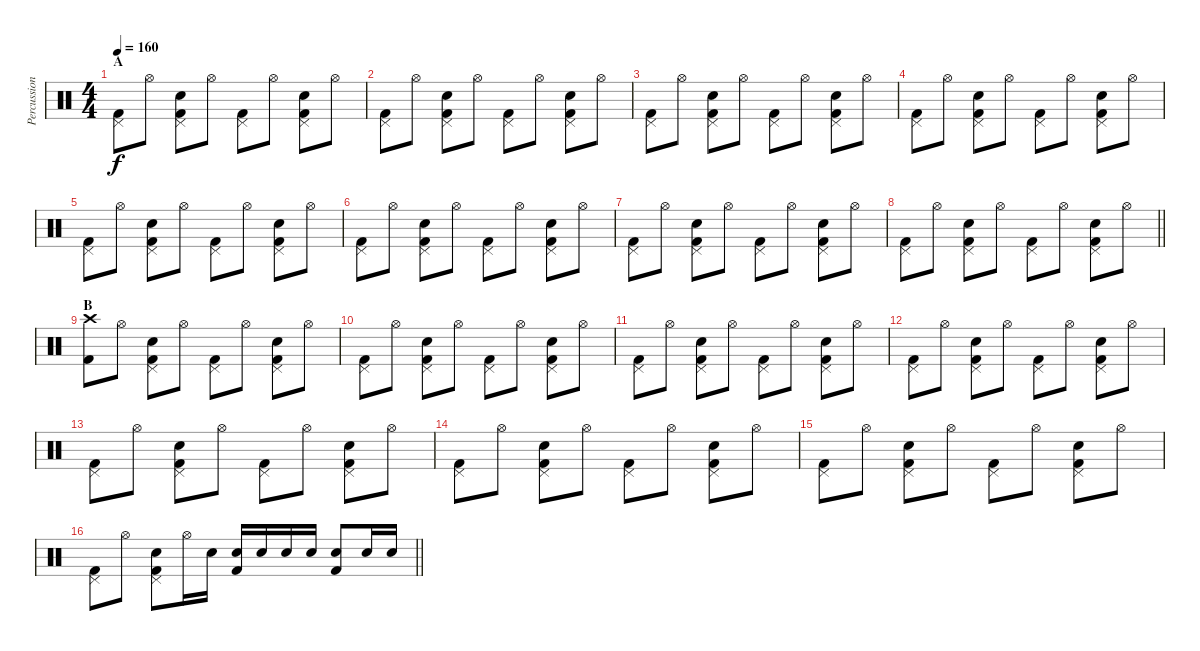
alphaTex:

\track ("Percussion" "Percussion") {instrument percussion}
\staff {score}
\articulation defaults
\ts (4 4)
\section ("" "A")
\tempo 160
\clef neutral
\ks c
("Pedal Hi-Hat (hit)" "Kick (hit) 2").8{dy f} "Hi-Hat (open)".8 ("Pedal Hi-Hat (hit)" "Electric Snare (hit)" "Kick (hit) 2").8 "Hi-Hat (open)".8 ("Pedal Hi-Hat (hit)" "Kick (hit) 2").8 "Hi-Hat (open)".8 ("Pedal Hi-Hat (hit)" "Electric Snare (hit)" "Kick (hit) 2").8 "Hi-Hat (open)".8 |
("Pedal Hi-Hat (hit)" "Kick (hit) 2").8 "Hi-Hat (open)".8 ("Pedal Hi-Hat (hit)" "Electric Snare (hit)" "Kick (hit) 2").8 "Hi-Hat (open)".8 ("Pedal Hi-Hat (hit)" "Kick (hit) 2").8 "Hi-Hat (open)".8 ("Pedal Hi-Hat (hit)" "Electric Snare (hit)" "Kick (hit) 2").8 "Hi-Hat (open)".8 |
("Pedal Hi-Hat (hit)" "Kick (hit) 2").8 "Hi-Hat (open)".8 ("Pedal Hi-Hat (hit)" "Electric Snare (hit)" "Kick (hit) 2").8 "Hi-Hat (open)".8 ("Pedal Hi-Hat (hit)" "Kick (hit) 2").8 "Hi-Hat (open)".8 ("Pedal Hi-Hat (hit)" "Electric Snare (hit)" "Kick (hit) 2").8 "Hi-Hat (open)".8 |
("Pedal Hi-Hat (hit)" "Kick (hit) 2").8 "Hi-Hat (open)".8 ("Pedal Hi-Hat (hit)" "Electric Snare (hit)" "Kick (hit) 2").8 "Hi-Hat (open)".8 ("Pedal Hi-Hat (hit)" "Kick (hit) 2").8 "Hi-Hat (open)".8 ("Pedal Hi-Hat (hit)" "Electric Snare (hit)" "Kick (hit) 2").8 "Hi-Hat (open)".8 |
("Pedal Hi-Hat (hit)" "Kick (hit) 2").8 "Hi-Hat (open)".8 ("Pedal Hi-Hat (hit)" "Electric Snare (hit)" "Kick (hit) 2").8 "Hi-Hat (open)".8 ("Pedal Hi-Hat (hit)" "Kick (hit) 2").8 "Hi-Hat (open)".8 ("Pedal Hi-Hat (hit)" "Electric Snare (hit)" "Kick (hit) 2").8 "Hi-Hat (open)".8 |
("Pedal Hi-Hat (hit)" "Kick (hit) 2").8 "Hi-Hat (open)".8 ("Pedal Hi-Hat (hit)" "Electric Snare (hit)" "Kick (hit) 2").8 "Hi-Hat (open)".8 ("Pedal Hi-Hat (hit)" "Kick (hit) 2").8 "Hi-Hat (open)".8 ("Pedal Hi-Hat (hit)" "Electric Snare (hit)" "Kick (hit) 2").8 "Hi-Hat (open)".8 |
("Pedal Hi-Hat (hit)" "Kick (hit) 2").8 "Hi-Hat (open)".8 ("Pedal Hi-Hat (hit)" "Electric Snare (hit)" "Kick (hit) 2").8 "Hi-Hat (open)".8 ("Pedal Hi-Hat (hit)" "Kick (hit) 2").8 "Hi-Hat (open)".8 ("Pedal Hi-Hat (hit)" "Electric Snare (hit)" "Kick (hit) 2").8 "Hi-Hat (open)".8 |
\barLineRight lightlight
("Pedal Hi-Hat (hit)" "Kick (hit) 2").8 "Hi-Hat (open)".8 ("Pedal Hi-Hat (hit)" "Electric Snare (hit)" "Kick (hit) 2").8 "Hi-Hat (open)".8 ("Pedal Hi-Hat (hit)" "Kick (hit) 2").8 "Hi-Hat (open)".8 ("Pedal Hi-Hat (hit)" "Electric Snare (hit)" "Kick (hit) 2").8 "Hi-Hat (open)".8 |
\section ("" "B")
("Crash high (hit)" "Kick (hit) 2").8 "Hi-Hat (open)".8 ("Pedal Hi-Hat (hit)" "Electric Snare (hit)" "Kick (hit) 2").8 "Hi-Hat (open)".8 ("Pedal Hi-Hat (hit)" "Kick (hit) 2").8 "Hi-Hat (open)".8 ("Pedal Hi-Hat (hit)" "Electric Snare (hit)" "Kick (hit) 2").8 "Hi-Hat (open)".8 |
("Pedal Hi-Hat (hit)" "Kick (hit) 2").8 "Hi-Hat (open)".8 ("Pedal Hi-Hat (hit)" "Electric Snare (hit)" "Kick (hit) 2").8 "Hi-Hat (open)".8 ("Pedal Hi-Hat (hit)" "Kick (hit) 2").8 "Hi-Hat (open)".8 ("Pedal Hi-Hat (hit)" "Electric Snare (hit)" "Kick (hit) 2").8 "Hi-Hat (open)".8 |
("Pedal Hi-Hat (hit)" "Kick (hit) 2").8 "Hi-Hat (open)".8 ("Pedal Hi-Hat (hit)" "Electric Snare (hit)" "Kick (hit) 2").8 "Hi-Hat (open)".8 ("Pedal Hi-Hat (hit)" "Kick (hit) 2").8 "Hi-Hat (open)".8 ("Pedal Hi-Hat (hit)" "Electric Snare (hit)" "Kick (hit) 2").8 "Hi-Hat (open)".8 |
("Pedal Hi-Hat (hit)" "Kick (hit) 2").8 "Hi-Hat (open)".8 ("Pedal Hi-Hat (hit)" "Electric Snare (hit)" "Kick (hit) 2").8 "Hi-Hat (open)".8 ("Pedal Hi-Hat (hit)" "Kick (hit) 2").8 "Hi-Hat (open)".8 ("Pedal Hi-Hat (hit)" "Electric Snare (hit)" "Kick (hit) 2").8 "Hi-Hat (open)".8 |
("Pedal Hi-Hat (hit)" "Kick (hit) 2").8 "Hi-Hat (open)".8 ("Pedal Hi-Hat (hit)" "Electric Snare (hit)" "Kick (hit) 2").8 "Hi-Hat (open)".8 ("Pedal Hi-Hat (hit)" "Kick (hit) 2").8 "Hi-Hat (open)".8 ("Pedal Hi-Hat (hit)" "Electric Snare (hit)" "Kick (hit) 2").8 "Hi-Hat (open)".8 |
("Pedal Hi-Hat (hit)" "Kick (hit) 2").8 "Hi-Hat (open)".8 ("Pedal Hi-Hat (hit)" "Electric Snare (hit)" "Kick (hit) 2").8 "Hi-Hat (open)".8 ("Pedal Hi-Hat (hit)" "Kick (hit) 2").8 "Hi-Hat (open)".8 ("Pedal Hi-Hat (hit)" "Electric Snare (hit)" "Kick (hit) 2").8 "Hi-Hat (open)".8 |
("Pedal Hi-Hat (hit)" "Kick (hit) 2").8 "Hi-Hat (open)".8 ("Pedal Hi-Hat (hit)" "Electric Snare (hit)" "Kick (hit) 2").8 "Hi-Hat (open)".8 ("Pedal Hi-Hat (hit)" "Kick (hit) 2").8 "Hi-Hat (open)".8 ("Pedal Hi-Hat (hit)" "Electric Snare (hit)" "Kick (hit) 2").8 "Hi-Hat (open)".8 |
\barLineRight lightlight
("Pedal Hi-Hat (hit)" "Kick (hit) 2").8 "Hi-Hat (open)".8 ("Pedal Hi-Hat (hit)" "Electric Snare (hit)" "Kick (hit) 2").8 "Hi-Hat (open)".16 "Electric Snare (hit)".16 ("Electric Snare (hit)" "Kick (hit) 2").16 "Electric Snare (hit)".16 "Electric Snare (hit)".16 "Electric Snare (hit)".16 ("Electric Snare (hit)" "Kick (hit) 2").8 "Electric Snare (hit)".16 "Electric Snare (hit)".16
